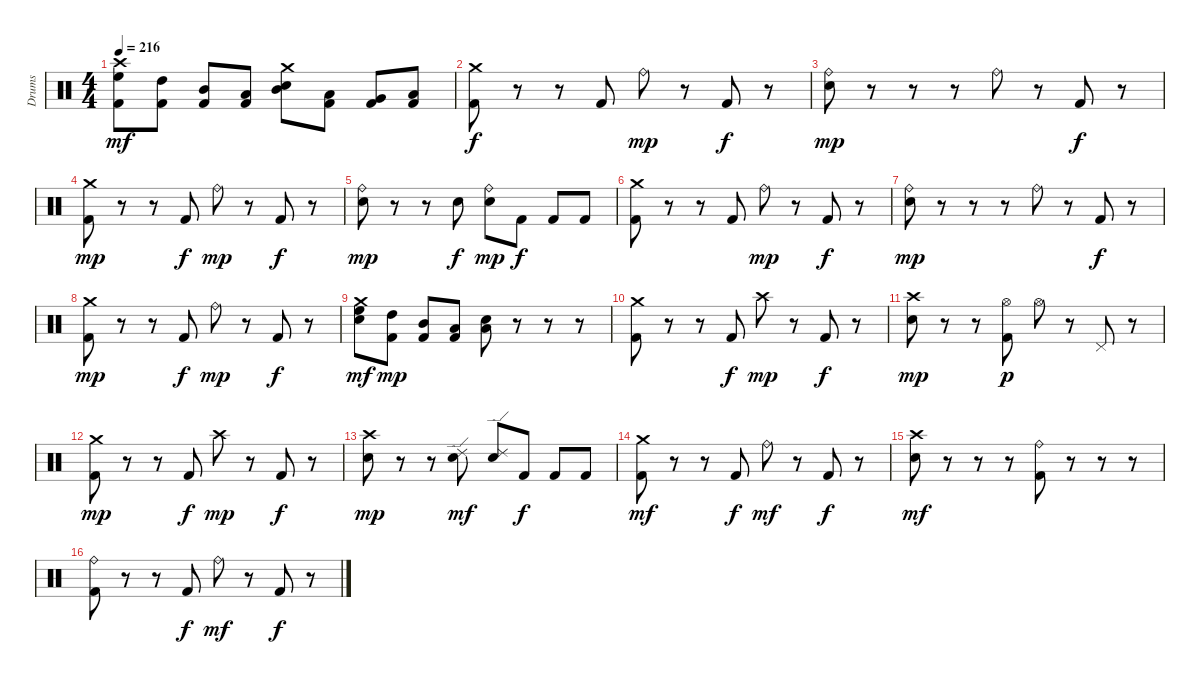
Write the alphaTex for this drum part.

\track ("Drums" "Drums") {instrument percussion}
\staff {score}
\articulation defaults
\ts (4 4)
\tempo 216
\clef neutral
\ks c
("Kick (hit) 2" "High Floor Tom (hit)" "Crash high (hit)").8{dy mf} ("Kick (hit) 2" "High Tom (hit)").8 ("Kick (hit) 2" "Mid Tom (hit)").8 ("Kick (hit) 2" "Low Tom (hit)").8 ("Snare (hit) 2" "Mid Tom (hit)" "Crash medium (hit)").8 ("Kick (hit) 2" "Low Tom (hit)").8 ("Kick (hit) 2" "Very Low Tom (hit)").8 ("Kick (hit) 2" "Low Floor Tom (hit)").8 |
("Kick (hit) 2" "Crash medium (hit)").8{dy f} r.8 r.8 "Kick (hit) 2".8 "Ride (bell)".8{dy mp} r.8 "Kick (hit) 2".8{dy f} r.8 |
("Snare (hit) 2" "Ride (bell)").8{dy mp} r.8 r.8 r.8 "Ride (bell)".8 r.8 "Kick (hit) 2".8{dy f} r.8 |
("Kick (hit) 2" "Crash medium (hit)").8{dy mp} r.8 r.8 "Kick (hit) 2".8{dy f} "Ride (bell)".8{dy mp} r.8 "Kick (hit) 2".8{dy f} r.8 |
("Snare (hit) 2" "Ride (bell)").8{dy mp} r.8 r.8 "Snare (hit) 2".8{dy f} ("Snare (hit) 2" "Ride (bell)").8{dy mp} "Kick (hit) 2".8{dy f} "Kick (hit) 2".8 "Kick (hit) 2".8 |
("Kick (hit) 2" "Crash medium (hit)").8 r.8 r.8 "Kick (hit) 2".8 "Ride (bell)".8{dy mp} r.8 "Kick (hit) 2".8{dy f} r.8 |
("Snare (hit) 2" "Ride (bell)").8{dy mp} r.8 r.8 r.8 "Ride (bell)".8 r.8 "Kick (hit) 2".8{dy f} r.8 |
("Kick (hit) 2" "Crash medium (hit)").8{dy mp} r.8 r.8 "Kick (hit) 2".8{dy f} "Ride (bell)".8{dy mp} r.8 "Kick (hit) 2".8{dy f} r.8 |
("Snare (hit) 2" "High Floor Tom (hit)" "Crash medium (hit)").8{dy mf} ("Kick (hit) 2" "High Tom (hit)").8{dy mp} ("Kick (hit) 2" "Mid Tom (hit)").8 ("Kick (hit) 2" "Low Floor Tom (hit)").8 ("Snare (hit) 2" "Low Tom (hit)").8 r.8 r.8 r.8 |
("Kick (hit) 2" "Crash medium (hit)").8 r.8 r.8 "Kick (hit) 2".8{dy f} "Crash high (hit)".8{dy mp} r.8 "Kick (hit) 2".8{dy f} r.8 |
("Snare (hit) 2" "Crash high (hit)").8{dy mp} r.8 r.8 ("Kick (hit) 2" "Hi-Hat (open)").8{dy p} "Hi-Hat (open)".8 r.8 "Pedal Hi-Hat (hit)".8 r.8 |
("Kick (hit) 2" "Crash medium (hit)").8{dy mp} r.8 r.8 "Kick (hit) 2".8{dy f} "Crash high (hit)".8{dy mp} r.8 "Kick (hit) 2".8{dy f} r.8 |
("Snare (hit) 2" "Crash high (hit)").8{dy mp} r.8 r.8 ("Snare (hit) 2" "Ride (edge) 2").8{dy mf} ("Snare (hit) 2" "Ride (edge) 2").8 "Kick (hit) 2".8{dy f} "Kick (hit) 2".8 "Kick (hit) 2".8 |
("Kick (hit) 2" "Crash medium (hit)").8{dy mf} r.8 r.8 "Kick (hit) 2".8{dy f} "Ride (bell)".8{dy mf} r.8 "Kick (hit) 2".8{dy f} r.8 |
("Snare (hit) 2" "Crash high (hit)").8{dy mf} r.8 r.8 r.8 ("Kick (hit) 2" "Ride (bell)").8 r.8 r.8 r.8 |
("Kick (hit) 2" "Ride (bell)").8 r.8 r.8 "Kick (hit) 2".8{dy f} "Ride (bell)".8{dy mf} r.8 "Kick (hit) 2".8{dy f} r.8
